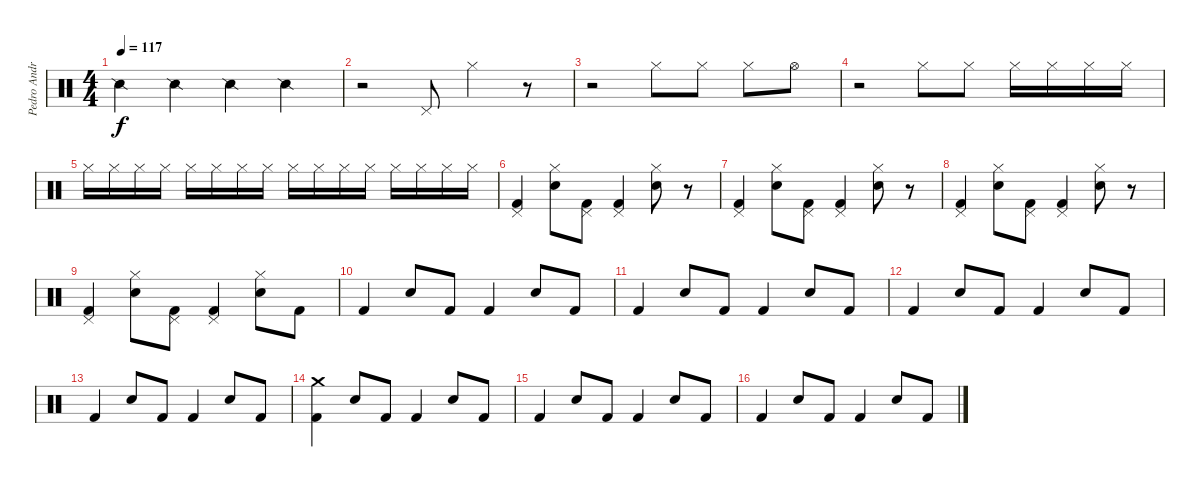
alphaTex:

\track ("Pedro Andreu - Batería" "Pedro Andr") {instrument percussion}
\staff {score}
\articulation defaults
\ts (4 4)
\tempo 117
\clef neutral
\ks c "Snare (side stick) 2".4{dy f} "Snare (side stick) 2".4 "Snare (side stick) 2".4 "Snare (side stick) 2".4
|
r.2 "Pedal Hi-Hat (hit)".8 "Hi-Hat (closed)".4 r.8 |
r.2 "Hi-Hat (closed)".8 "Hi-Hat (closed)".8 "Hi-Hat (closed)".8 "Hi-Hat (open)".8 |
r.2 "Hi-Hat (closed)".8 "Hi-Hat (closed)".8 "Hi-Hat (closed)".16 "Hi-Hat (closed)".16 "Hi-Hat (closed)".16 "Hi-Hat (closed)".16 |
"Hi-Hat (closed)".16 "Hi-Hat (closed)".16 "Hi-Hat (closed)".16 "Hi-Hat (closed)".16 "Hi-Hat (closed)".16 "Hi-Hat (closed)".16 "Hi-Hat (closed)".16 "Hi-Hat (closed)".16 "Hi-Hat (closed)".16 "Hi-Hat (closed)".16 "Hi-Hat (closed)".16 "Hi-Hat (closed)".16 "Hi-Hat (closed)".16 "Hi-Hat (closed)".16 "Hi-Hat (closed)".16 "Hi-Hat (closed)".16 |
("Kick (hit) 2" "Pedal Hi-Hat (hit)").4 ("Snare (hit) 2" "Hi-Hat (closed)").8 ("Kick (hit) 2" "Pedal Hi-Hat (hit)").8 ("Kick (hit) 2" "Pedal Hi-Hat (hit)").4 ("Snare (hit) 2" "Hi-Hat (closed)").8 r.8 |
("Kick (hit) 2" "Pedal Hi-Hat (hit)").4 ("Snare (hit) 2" "Hi-Hat (closed)").8 ("Kick (hit) 2" "Pedal Hi-Hat (hit)").8 ("Kick (hit) 2" "Pedal Hi-Hat (hit)").4 ("Snare (hit) 2" "Hi-Hat (closed)").8 r.8 |
("Kick (hit) 2" "Pedal Hi-Hat (hit)").4 ("Snare (hit) 2" "Hi-Hat (closed)").8 ("Kick (hit) 2" "Pedal Hi-Hat (hit)").8 ("Kick (hit) 2" "Pedal Hi-Hat (hit)").4 ("Snare (hit) 2" "Hi-Hat (closed)").8 r.8 |
("Kick (hit) 2" "Pedal Hi-Hat (hit)").4 ("Snare (hit) 2" "Hi-Hat (closed)").8 ("Kick (hit) 2" "Pedal Hi-Hat (hit)").8 ("Kick (hit) 2" "Pedal Hi-Hat (hit)").4 ("Snare (hit) 2" "Hi-Hat (closed)").8 "Kick (hit) 2".8 |
"Kick (hit) 2".4 "Snare (hit) 2".8 "Kick (hit) 2".8 "Kick (hit) 2".4 "Snare (hit) 2".8 "Kick (hit) 2".8 |
"Kick (hit) 2".4 "Snare (hit) 2".8 "Kick (hit) 2".8 "Kick (hit) 2".4 "Snare (hit) 2".8 "Kick (hit) 2".8 |
"Kick (hit) 2".4 "Snare (hit) 2".8 "Kick (hit) 2".8 "Kick (hit) 2".4 "Snare (hit) 2".8 "Kick (hit) 2".8 |
"Kick (hit) 2".4 "Snare (hit) 2".8 "Kick (hit) 2".8 "Kick (hit) 2".4 "Snare (hit) 2".8 "Kick (hit) 2".8 |
("Kick (hit) 2" "Crash medium (hit)").4 "Snare (hit) 2".8 "Kick (hit) 2".8 "Kick (hit) 2".4 "Snare (hit) 2".8 "Kick (hit) 2".8 |
"Kick (hit) 2".4 "Snare (hit) 2".8 "Kick (hit) 2".8 "Kick (hit) 2".4 "Snare (hit) 2".8 "Kick (hit) 2".8 |
"Kick (hit) 2".4 "Snare (hit) 2".8 "Kick (hit) 2".8 "Kick (hit) 2".4 "Snare (hit) 2".8 "Kick (hit) 2".8
